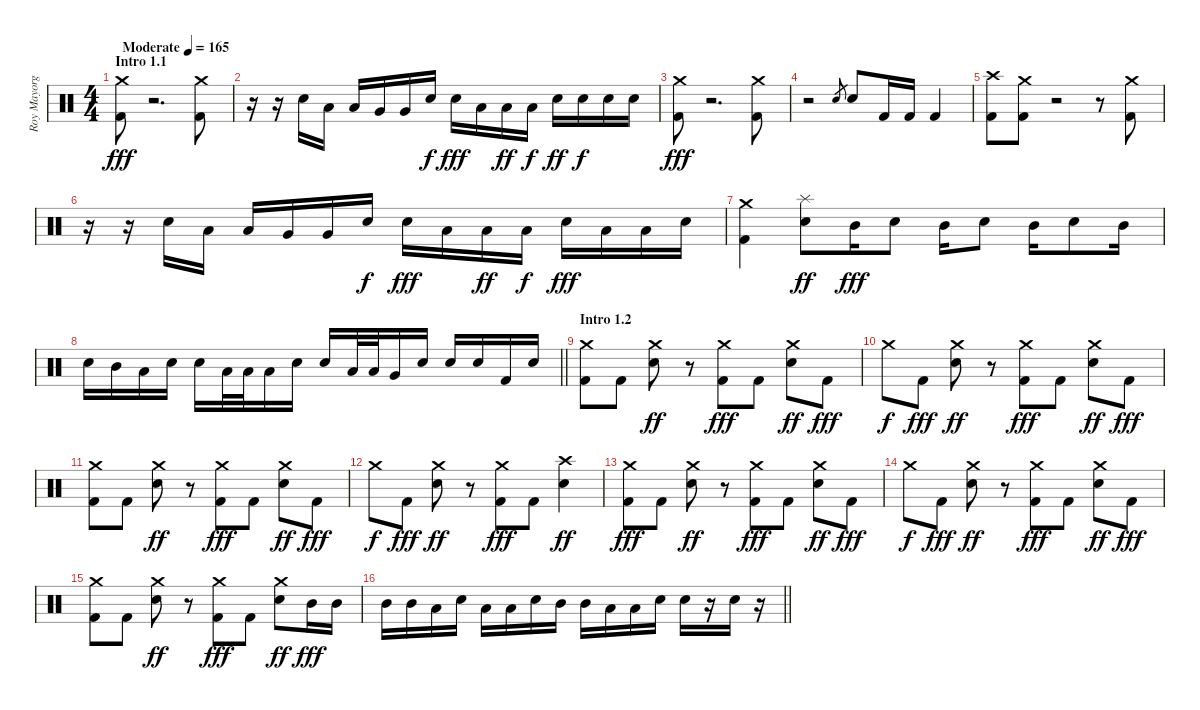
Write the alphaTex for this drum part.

\track ("Roy Mayorga" "Roy Mayorg") {instrument percussion}
\staff {score}
\articulation defaults
\ts (4 4)
\section ("" "Intro 1.1")
\tempo (165 "Moderate")
\clef neutral
\ks c
("Crash medium (hit)" "Kick (hit) 2").8{dy fff} r.2{d volume 0} ("Crash medium (hit)" "Kick (hit) 2").8{volume 9} |
r.16 r.16 "Electric Snare (hit)".16 "Low Tom (hit)".16 "Low Tom (hit)".16 "Very Low Tom (hit)".16 "Very Low Tom (hit)".16 "Electric Snare (hit)".16{dy f} "Electric Snare (hit)".16{dy fff} "Low Tom (hit)".16 "Low Tom (hit)".16{dy ff} "Low Tom (hit)".16{dy f} "Electric Snare (hit)".16{dy ff} "Electric Snare (hit)".16{dy f} "Electric Snare (hit)".16 "Electric Snare (hit)".16 |
("Crash medium (hit)" "Kick (hit) 2").8{dy fff} r.2{d volume 0} ("Crash medium (hit)" "Kick (hit) 2").8{volume 10} |
r.2 "Electric Snare (hit)".8{gr} "Electric Snare (hit)".8 "Kick (hit) 2".16 "Kick (hit) 2".16 "Kick (hit) 2".4 |
("Crash high (hit)" "Kick (hit) 2").8 ("Crash medium (hit)" "Kick (hit) 2").8 r.2{volume 0} r.8 ("Crash medium (hit)" "Kick (hit) 2").8{volume 10} |
r.16 r.16 "Electric Snare (hit)".16 "Low Tom (hit)".16 "Low Tom (hit)".16 "Very Low Tom (hit)".16 "Very Low Tom (hit)".16 "Electric Snare (hit)".16{dy f} "Electric Snare (hit)".16{dy fff} "Low Tom (hit)".16 "Low Tom (hit)".16{dy ff} "Low Tom (hit)".16{dy f} "Electric Snare (hit)".16{dy fff} "Low Tom (hit)".16 "Low Tom (hit)".16 "Electric Snare (hit)".16 |
("Crash medium (hit)" "Kick (hit) 2").4 ("Splash (hit)" "Electric Snare (hit)").8{dy ff} "Mid Tom (hit)".16{dy fff} "Electric Snare (hit)".8 "Mid Tom (hit)".16 "Electric Snare (hit)".8 "Mid Tom (hit)".16 "Electric Snare (hit)".8 "Mid Tom (hit)".16 |
\barLineRight lightlight "Electric Snare (hit)".16 "Mid Tom (hit)".16 "Low Tom (hit)".16 "Electric Snare (hit)".16 "Electric Snare (hit)".16 "Low Tom (hit)".32 "Low Tom (hit)".32 "Low Tom (hit)".16 "Electric Snare (hit)".16 "Electric Snare (hit)".16 "Low Tom (hit)".32 "Low Tom (hit)".32 "Very Low Tom (hit)".16 "Electric Snare (hit)".16 "Electric Snare (hit)".16 "Electric Snare (hit)".16 "Kick (hit) 2".16 "Electric Snare (hit)".16
|
\section ("" "Intro 1.2")
("Crash medium (hit)" "Kick (hit) 2").8 "Kick (hit) 2".8 ("Crash medium (hit)" "Electric Snare (hit)").8{dy ff} r.8 ("Crash medium (hit)" "Kick (hit) 2").8{dy fff} "Kick (hit) 2".8 ("Crash medium (hit)" "Electric Snare (hit)").8{dy ff} "Kick (hit) 2".8{dy fff} |
"Crash medium (hit)".8{dy f} "Kick (hit) 2".8{dy fff} ("Crash medium (hit)" "Electric Snare (hit)").8{dy ff} r.8 ("Crash medium (hit)" "Kick (hit) 2").8{dy fff} "Kick (hit) 2".8 ("Crash medium (hit)" "Electric Snare (hit)").8{dy ff} "Kick (hit) 2".8{dy fff} |
("Crash medium (hit)" "Kick (hit) 2").8 "Kick (hit) 2".8 ("Crash medium (hit)" "Electric Snare (hit)").8{dy ff} r.8 ("Crash medium (hit)" "Kick (hit) 2").8{dy fff} "Kick (hit) 2".8 ("Crash medium (hit)" "Electric Snare (hit)").8{dy ff} "Kick (hit) 2".8{dy fff} |
"Crash medium (hit)".8{dy f} "Kick (hit) 2".8{dy fff} ("Crash medium (hit)" "Electric Snare (hit)").8{dy ff} r.8 ("Crash medium (hit)" "Kick (hit) 2").8{dy fff} "Kick (hit) 2".8 ("Crash high (hit)" "Electric Snare (hit)").4{dy ff} |
("Crash medium (hit)" "Kick (hit) 2").8{dy fff} "Kick (hit) 2".8 ("Crash medium (hit)" "Electric Snare (hit)").8{dy ff} r.8 ("Crash medium (hit)" "Kick (hit) 2").8{dy fff} "Kick (hit) 2".8 ("Crash medium (hit)" "Electric Snare (hit)").8{dy ff} "Kick (hit) 2".8{dy fff} |
"Crash medium (hit)".8{dy f} "Kick (hit) 2".8{dy fff} ("Crash medium (hit)" "Electric Snare (hit)").8{dy ff} r.8 ("Crash medium (hit)" "Kick (hit) 2").8{dy fff} "Kick (hit) 2".8 ("Crash medium (hit)" "Electric Snare (hit)").8{dy ff} "Kick (hit) 2".8{dy fff} |
("Crash medium (hit)" "Kick (hit) 2").8 "Kick (hit) 2".8 ("Crash medium (hit)" "Electric Snare (hit)").8{dy ff} r.8 ("Crash medium (hit)" "Kick (hit) 2").8{dy fff} "Kick (hit) 2".8 ("Crash medium (hit)" "Electric Snare (hit)").8{dy ff} "Mid Tom (hit)".16{dy fff} "Mid Tom (hit)".16 |
\barLineRight lightlight "Mid Tom (hit)".16 "Mid Tom (hit)".16 "Low Tom (hit)".16 "Electric Snare (hit)".16 "Low Tom (hit)".16 "Low Tom (hit)".16 "Electric Snare (hit)".16 "Mid Tom (hit)".16 "Mid Tom (hit)".16 "Low Tom (hit)".16 "Low Tom (hit)".16 "Electric Snare (hit)".16 "Electric Snare (hit)".16
r.16 "Electric Snare (hit)".16 r.16
